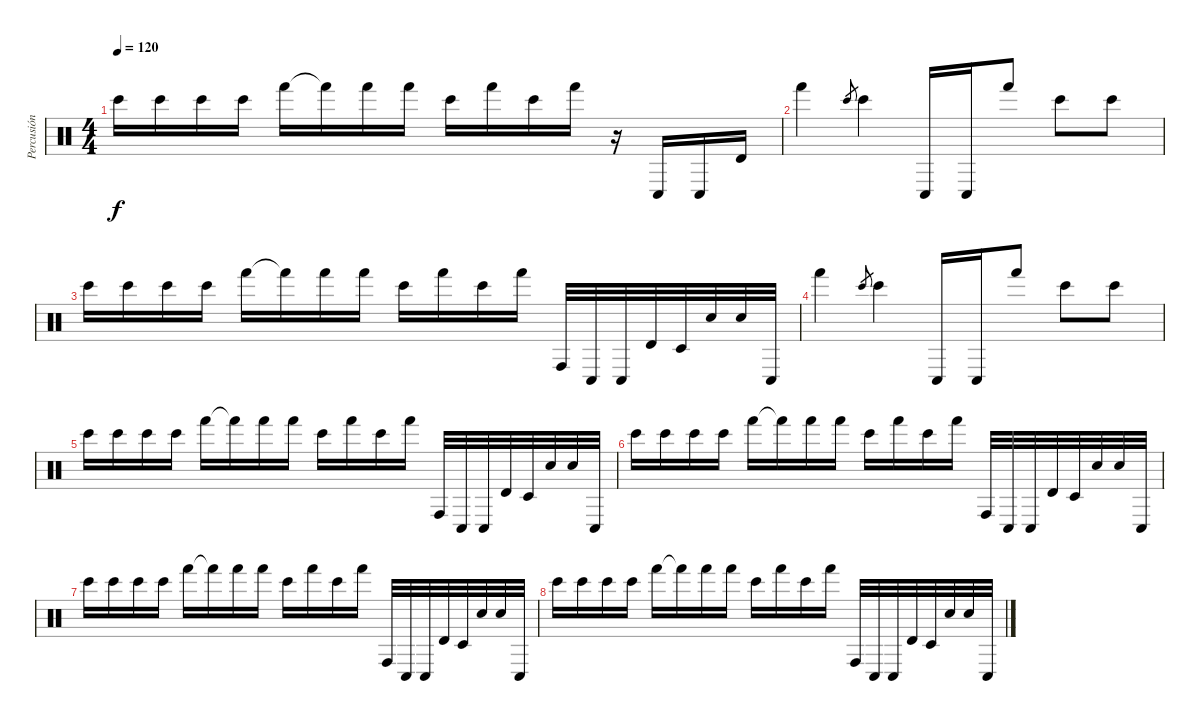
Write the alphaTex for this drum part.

\track ("Percusión" "Percusión") {instrument percussion}
\staff {score}
\articulation defaults
\ts (4 4)
\tempo 120
\clef neutral
\ks c "Bongo High (hit)".16{dy f} "Bongo High (hit)".16 "Bongo High (hit)".16 "Bongo High (hit)".16 "Hand (hit)".16 "Hand (hit)"{t}.16 "Hand (hit)".16 "Hand (hit)".16 "Bongo High (hit)".16 "Hand (hit)".16 "Bongo High (hit)".16 "Hand (hit)".16
r.16 "Conga low (hit)".16 "Conga low (hit)".16 "Timbale high (hit)".16 |
"Hand (hit)".4 "Bongo High (hit)".8{gr} "Bongo High (hit)".4 "Conga low (hit)".16 "Conga low (hit)".16 "Hand (hit)".8 "Bongo High (hit)".8 "Bongo High (hit)".8 |
"Bongo High (hit)".16 "Bongo High (hit)".16 "Bongo High (hit)".16 "Bongo High (hit)".16 "Hand (hit)".16 "Hand (hit)"{t}.16 "Hand (hit)".16 "Hand (hit)".16 "Bongo High (hit)".16 "Hand (hit)".16 "Bongo High (hit)".16 "Hand (hit)".16 "Conga high (hit)".32 "Conga low (hit)".32 "Conga low (hit)".32 "Timbale high (hit)".32 "Timbale low (hit)".32 "Snare (hit)".32 "Snare (hit)".32 "Conga low (hit)".32 |
"Hand (hit)".4 "Bongo High (hit)".8{gr} "Bongo High (hit)".4 "Conga low (hit)".16 "Conga low (hit)".16 "Hand (hit)".8 "Bongo High (hit)".8 "Bongo High (hit)".8 |
"Bongo High (hit)".16 "Bongo High (hit)".16 "Bongo High (hit)".16 "Bongo High (hit)".16 "Hand (hit)".16 "Hand (hit)"{t}.16 "Hand (hit)".16 "Hand (hit)".16 "Bongo High (hit)".16 "Hand (hit)".16 "Bongo High (hit)".16 "Hand (hit)".16 "Conga high (hit)".32 "Conga low (hit)".32 "Conga low (hit)".32 "Timbale high (hit)".32 "Timbale low (hit)".32 "Snare (hit)".32 "Snare (hit)".32 "Conga low (hit)".32 |
"Bongo High (hit)".16 "Bongo High (hit)".16 "Bongo High (hit)".16 "Bongo High (hit)".16 "Hand (hit)".16 "Hand (hit)"{t}.16 "Hand (hit)".16 "Hand (hit)".16 "Bongo High (hit)".16 "Hand (hit)".16 "Bongo High (hit)".16 "Hand (hit)".16 "Conga high (hit)".32 "Conga low (hit)".32 "Conga low (hit)".32 "Timbale high (hit)".32 "Timbale low (hit)".32 "Snare (hit)".32 "Snare (hit)".32 "Conga low (hit)".32 |
"Bongo High (hit)".16{volume 0} "Bongo High (hit)".16 "Bongo High (hit)".16 "Bongo High (hit)".16 "Hand (hit)".16 "Hand (hit)"{t}.16 "Hand (hit)".16 "Hand (hit)".16 "Bongo High (hit)".16 "Hand (hit)".16 "Bongo High (hit)".16 "Hand (hit)".16 "Conga high (hit)".32 "Conga low (hit)".32 "Conga low (hit)".32 "Timbale high (hit)".32 "Timbale low (hit)".32 "Snare (hit)".32 "Snare (hit)".32 "Conga low (hit)".32 |
"Bongo High (hit)".16 "Bongo High (hit)".16 "Bongo High (hit)".16 "Bongo High (hit)".16 "Hand (hit)".16 "Hand (hit)"{t}.16 "Hand (hit)".16 "Hand (hit)".16 "Bongo High (hit)".16 "Hand (hit)".16 "Bongo High (hit)".16 "Hand (hit)".16 "Conga high (hit)".32 "Conga low (hit)".32 "Conga low (hit)".32 "Timbale high (hit)".32 "Timbale low (hit)".32 "Snare (hit)".32 "Snare (hit)".32 "Conga low (hit)".32
